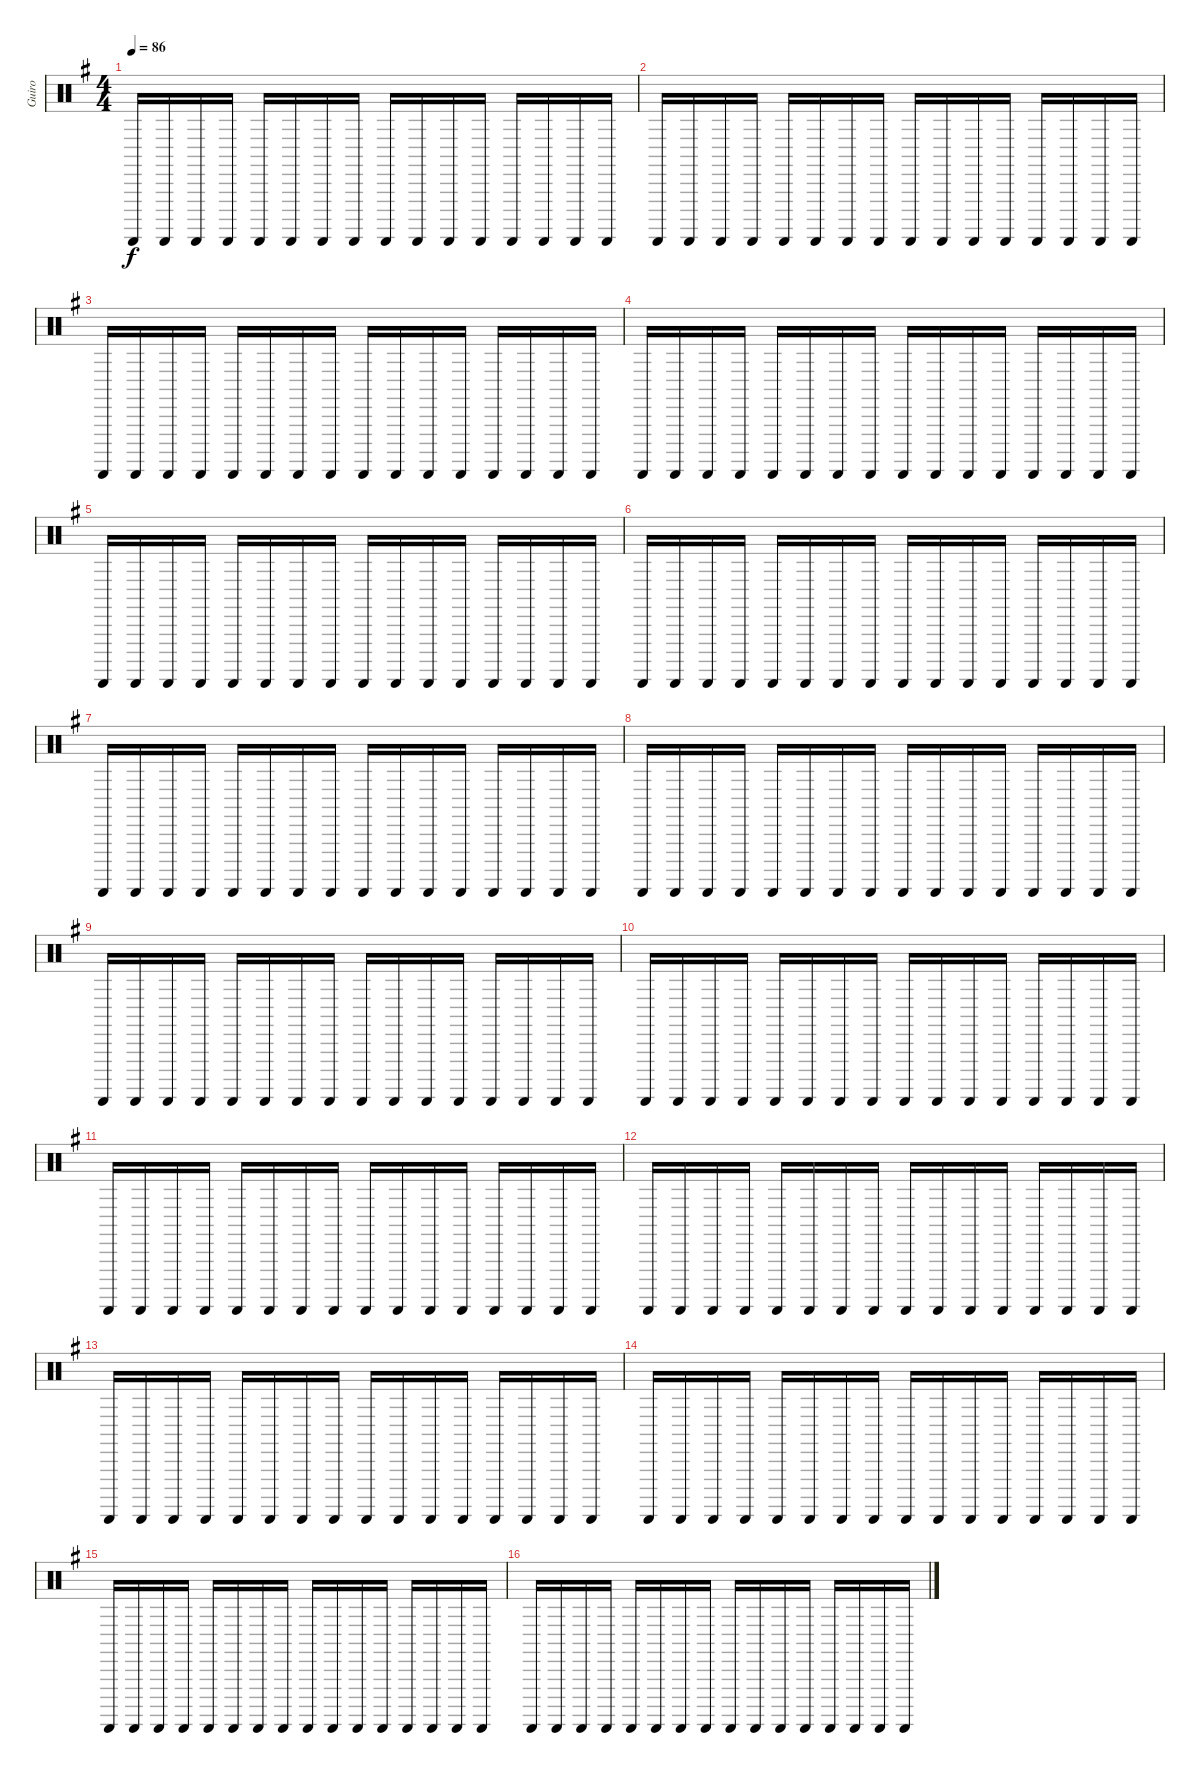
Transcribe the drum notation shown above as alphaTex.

\track ("Guiro" "Guiro") {instrument percussion}
\staff {score}
\articulation defaults
\ts (4 4)
\tempo 86
\clef neutral
\ks g "Guiro (scrap-return)".16{dy f} "Guiro (scrap-return)".16 "Guiro (scrap-return)".16 "Guiro (scrap-return)".16 "Guiro (scrap-return)".16 "Guiro (scrap-return)".16 "Guiro (scrap-return)".16 "Guiro (scrap-return)".16 "Guiro (scrap-return)".16 "Guiro (scrap-return)".16 "Guiro (scrap-return)".16 "Guiro (scrap-return)".16 "Guiro (scrap-return)".16 "Guiro (scrap-return)".16 "Guiro (scrap-return)".16 "Guiro (scrap-return)".16
|
"Guiro (scrap-return)".16 "Guiro (scrap-return)".16 "Guiro (scrap-return)".16 "Guiro (scrap-return)".16 "Guiro (scrap-return)".16 "Guiro (scrap-return)".16 "Guiro (scrap-return)".16 "Guiro (scrap-return)".16 "Guiro (scrap-return)".16 "Guiro (scrap-return)".16 "Guiro (scrap-return)".16 "Guiro (scrap-return)".16 "Guiro (scrap-return)".16 "Guiro (scrap-return)".16 "Guiro (scrap-return)".16 "Guiro (scrap-return)".16 |
"Guiro (scrap-return)".16 "Guiro (scrap-return)".16 "Guiro (scrap-return)".16 "Guiro (scrap-return)".16 "Guiro (scrap-return)".16 "Guiro (scrap-return)".16 "Guiro (scrap-return)".16 "Guiro (scrap-return)".16 "Guiro (scrap-return)".16 "Guiro (scrap-return)".16 "Guiro (scrap-return)".16 "Guiro (scrap-return)".16 "Guiro (scrap-return)".16 "Guiro (scrap-return)".16 "Guiro (scrap-return)".16 "Guiro (scrap-return)".16 |
"Guiro (scrap-return)".16 "Guiro (scrap-return)".16 "Guiro (scrap-return)".16 "Guiro (scrap-return)".16 "Guiro (scrap-return)".16 "Guiro (scrap-return)".16 "Guiro (scrap-return)".16 "Guiro (scrap-return)".16 "Guiro (scrap-return)".16 "Guiro (scrap-return)".16 "Guiro (scrap-return)".16 "Guiro (scrap-return)".16 "Guiro (scrap-return)".16 "Guiro (scrap-return)".16 "Guiro (scrap-return)".16 "Guiro (scrap-return)".16 |
"Guiro (scrap-return)".16 "Guiro (scrap-return)".16 "Guiro (scrap-return)".16 "Guiro (scrap-return)".16 "Guiro (scrap-return)".16 "Guiro (scrap-return)".16 "Guiro (scrap-return)".16 "Guiro (scrap-return)".16 "Guiro (scrap-return)".16 "Guiro (scrap-return)".16 "Guiro (scrap-return)".16 "Guiro (scrap-return)".16 "Guiro (scrap-return)".16 "Guiro (scrap-return)".16 "Guiro (scrap-return)".16 "Guiro (scrap-return)".16 |
"Guiro (scrap-return)".16 "Guiro (scrap-return)".16 "Guiro (scrap-return)".16 "Guiro (scrap-return)".16 "Guiro (scrap-return)".16 "Guiro (scrap-return)".16 "Guiro (scrap-return)".16 "Guiro (scrap-return)".16 "Guiro (scrap-return)".16 "Guiro (scrap-return)".16 "Guiro (scrap-return)".16 "Guiro (scrap-return)".16 "Guiro (scrap-return)".16 "Guiro (scrap-return)".16 "Guiro (scrap-return)".16 "Guiro (scrap-return)".16 |
"Guiro (scrap-return)".16 "Guiro (scrap-return)".16 "Guiro (scrap-return)".16 "Guiro (scrap-return)".16 "Guiro (scrap-return)".16 "Guiro (scrap-return)".16 "Guiro (scrap-return)".16 "Guiro (scrap-return)".16 "Guiro (scrap-return)".16 "Guiro (scrap-return)".16 "Guiro (scrap-return)".16 "Guiro (scrap-return)".16 "Guiro (scrap-return)".16 "Guiro (scrap-return)".16 "Guiro (scrap-return)".16 "Guiro (scrap-return)".16 |
"Guiro (scrap-return)".16 "Guiro (scrap-return)".16 "Guiro (scrap-return)".16 "Guiro (scrap-return)".16 "Guiro (scrap-return)".16 "Guiro (scrap-return)".16 "Guiro (scrap-return)".16 "Guiro (scrap-return)".16 "Guiro (scrap-return)".16 "Guiro (scrap-return)".16 "Guiro (scrap-return)".16 "Guiro (scrap-return)".16 "Guiro (scrap-return)".16 "Guiro (scrap-return)".16 "Guiro (scrap-return)".16 "Guiro (scrap-return)".16 |
"Guiro (scrap-return)".16 "Guiro (scrap-return)".16 "Guiro (scrap-return)".16 "Guiro (scrap-return)".16 "Guiro (scrap-return)".16 "Guiro (scrap-return)".16 "Guiro (scrap-return)".16 "Guiro (scrap-return)".16 "Guiro (scrap-return)".16 "Guiro (scrap-return)".16 "Guiro (scrap-return)".16 "Guiro (scrap-return)".16 "Guiro (scrap-return)".16 "Guiro (scrap-return)".16 "Guiro (scrap-return)".16 "Guiro (scrap-return)".16 |
"Guiro (scrap-return)".16 "Guiro (scrap-return)".16 "Guiro (scrap-return)".16 "Guiro (scrap-return)".16 "Guiro (scrap-return)".16 "Guiro (scrap-return)".16 "Guiro (scrap-return)".16 "Guiro (scrap-return)".16 "Guiro (scrap-return)".16 "Guiro (scrap-return)".16 "Guiro (scrap-return)".16 "Guiro (scrap-return)".16 "Guiro (scrap-return)".16 "Guiro (scrap-return)".16 "Guiro (scrap-return)".16 "Guiro (scrap-return)".16 |
"Guiro (scrap-return)".16 "Guiro (scrap-return)".16 "Guiro (scrap-return)".16 "Guiro (scrap-return)".16 "Guiro (scrap-return)".16 "Guiro (scrap-return)".16 "Guiro (scrap-return)".16 "Guiro (scrap-return)".16 "Guiro (scrap-return)".16 "Guiro (scrap-return)".16 "Guiro (scrap-return)".16 "Guiro (scrap-return)".16 "Guiro (scrap-return)".16 "Guiro (scrap-return)".16 "Guiro (scrap-return)".16 "Guiro (scrap-return)".16 |
"Guiro (scrap-return)".16 "Guiro (scrap-return)".16 "Guiro (scrap-return)".16 "Guiro (scrap-return)".16 "Guiro (scrap-return)".16 "Guiro (scrap-return)".16 "Guiro (scrap-return)".16 "Guiro (scrap-return)".16 "Guiro (scrap-return)".16 "Guiro (scrap-return)".16 "Guiro (scrap-return)".16 "Guiro (scrap-return)".16 "Guiro (scrap-return)".16 "Guiro (scrap-return)".16 "Guiro (scrap-return)".16 "Guiro (scrap-return)".16 |
"Guiro (scrap-return)".16 "Guiro (scrap-return)".16 "Guiro (scrap-return)".16 "Guiro (scrap-return)".16 "Guiro (scrap-return)".16 "Guiro (scrap-return)".16 "Guiro (scrap-return)".16 "Guiro (scrap-return)".16 "Guiro (scrap-return)".16 "Guiro (scrap-return)".16 "Guiro (scrap-return)".16 "Guiro (scrap-return)".16 "Guiro (scrap-return)".16 "Guiro (scrap-return)".16 "Guiro (scrap-return)".16 "Guiro (scrap-return)".16 |
"Guiro (scrap-return)".16 "Guiro (scrap-return)".16 "Guiro (scrap-return)".16 "Guiro (scrap-return)".16 "Guiro (scrap-return)".16 "Guiro (scrap-return)".16 "Guiro (scrap-return)".16 "Guiro (scrap-return)".16 "Guiro (scrap-return)".16 "Guiro (scrap-return)".16 "Guiro (scrap-return)".16 "Guiro (scrap-return)".16 "Guiro (scrap-return)".16 "Guiro (scrap-return)".16 "Guiro (scrap-return)".16 "Guiro (scrap-return)".16 |
"Guiro (scrap-return)".16 "Guiro (scrap-return)".16 "Guiro (scrap-return)".16 "Guiro (scrap-return)".16 "Guiro (scrap-return)".16 "Guiro (scrap-return)".16 "Guiro (scrap-return)".16 "Guiro (scrap-return)".16 "Guiro (scrap-return)".16 "Guiro (scrap-return)".16 "Guiro (scrap-return)".16 "Guiro (scrap-return)".16 "Guiro (scrap-return)".16 "Guiro (scrap-return)".16 "Guiro (scrap-return)".16 "Guiro (scrap-return)".16 |
"Guiro (scrap-return)".16 "Guiro (scrap-return)".16 "Guiro (scrap-return)".16 "Guiro (scrap-return)".16 "Guiro (scrap-return)".16 "Guiro (scrap-return)".16 "Guiro (scrap-return)".16 "Guiro (scrap-return)".16 "Guiro (scrap-return)".16 "Guiro (scrap-return)".16 "Guiro (scrap-return)".16 "Guiro (scrap-return)".16 "Guiro (scrap-return)".16 "Guiro (scrap-return)".16 "Guiro (scrap-return)".16 "Guiro (scrap-return)".16
